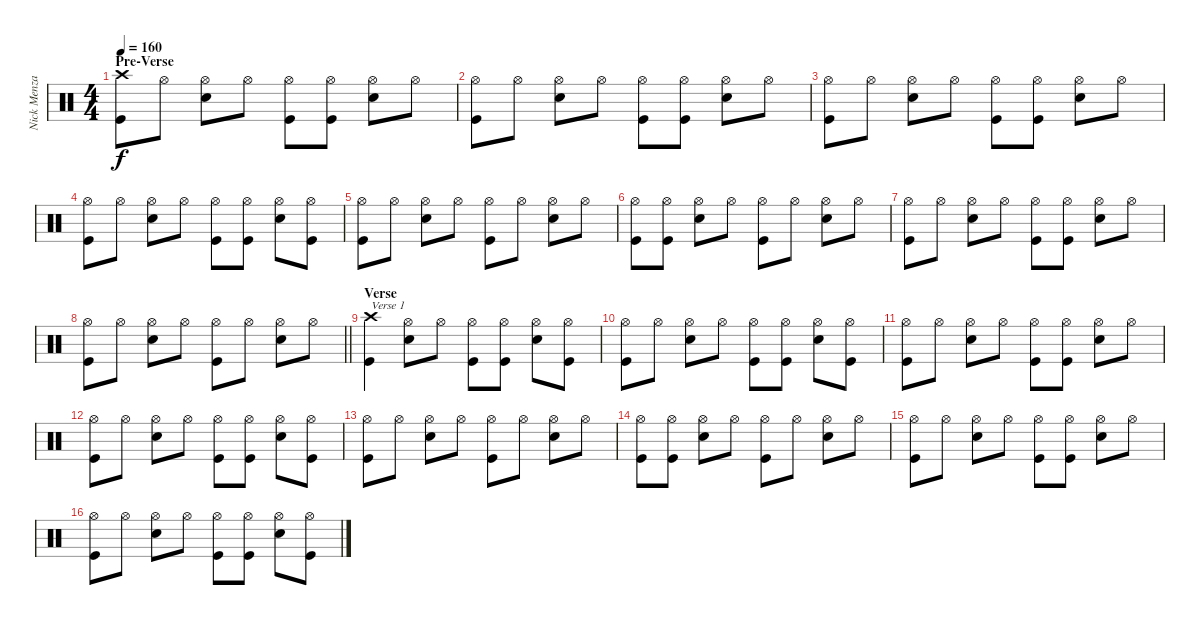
\track ("Nick Menza" "Nick Menza") {instrument percussion}
\staff {score}
\articulation defaults
\ts (4 4)
\section ("" "Pre-Verse")
\tempo 160
\clef neutral
\ks c
("Crash high (hit)" "Kick (hit)").8{dy f} "Hi-Hat (open)".8 ("Hi-Hat (open)" "Snare (hit) 2").8 "Hi-Hat (open)".8 ("Hi-Hat (open)" "Kick (hit)").8 ("Hi-Hat (open)" "Kick (hit)").8 ("Hi-Hat (open)" "Snare (hit) 2").8 "Hi-Hat (open)".8 |
("Hi-Hat (open)" "Kick (hit)").8 "Hi-Hat (open)".8 ("Hi-Hat (open)" "Snare (hit) 2").8 "Hi-Hat (open)".8 ("Hi-Hat (open)" "Kick (hit)").8 ("Hi-Hat (open)" "Kick (hit)").8 ("Hi-Hat (open)" "Snare (hit) 2").8 "Hi-Hat (open)".8 |
("Hi-Hat (open)" "Kick (hit)").8 "Hi-Hat (open)".8 ("Hi-Hat (open)" "Snare (hit) 2").8 "Hi-Hat (open)".8 ("Hi-Hat (open)" "Kick (hit)").8 ("Hi-Hat (open)" "Kick (hit)").8 ("Hi-Hat (open)" "Snare (hit) 2").8 "Hi-Hat (open)".8 |
("Hi-Hat (open)" "Kick (hit)").8 "Hi-Hat (open)".8 ("Hi-Hat (open)" "Snare (hit) 2").8 "Hi-Hat (open)".8 ("Hi-Hat (open)" "Kick (hit)").8 ("Hi-Hat (open)" "Kick (hit)").8 ("Hi-Hat (open)" "Snare (hit) 2").8 ("Hi-Hat (open)" "Kick (hit)").8 |
("Hi-Hat (open)" "Kick (hit)").8 "Hi-Hat (open)".8 ("Hi-Hat (open)" "Snare (hit) 2").8 "Hi-Hat (open)".8 ("Hi-Hat (open)" "Kick (hit)").8 "Hi-Hat (open)".8 ("Hi-Hat (open)" "Snare (hit) 2").8 "Hi-Hat (open)".8 |
("Hi-Hat (open)" "Kick (hit)").8 ("Hi-Hat (open)" "Kick (hit)").8 ("Hi-Hat (open)" "Snare (hit) 2").8 "Hi-Hat (open)".8 ("Hi-Hat (open)" "Kick (hit)").8 "Hi-Hat (open)".8 ("Hi-Hat (open)" "Snare (hit) 2").8 "Hi-Hat (open)".8 |
("Hi-Hat (open)" "Kick (hit)").8 "Hi-Hat (open)".8 ("Hi-Hat (open)" "Snare (hit) 2").8 "Hi-Hat (open)".8 ("Hi-Hat (open)" "Kick (hit)").8 ("Hi-Hat (open)" "Kick (hit)").8 ("Hi-Hat (open)" "Snare (hit) 2").8 "Hi-Hat (open)".8 |
\barLineRight lightlight
("Hi-Hat (open)" "Kick (hit)").8 "Hi-Hat (open)".8 ("Hi-Hat (open)" "Snare (hit) 2").8 "Hi-Hat (open)".8 ("Hi-Hat (open)" "Kick (hit)").8 "Hi-Hat (open)".8 ("Hi-Hat (open)" "Snare (hit) 2").8 "Hi-Hat (open)".8 |
\section ("" "Verse")
("Crash high (hit)" "Kick (hit)").4{txt "Verse 1"} ("Hi-Hat (open)" "Snare (hit) 2").8 "Hi-Hat (open)".8 ("Hi-Hat (open)" "Kick (hit)").8 ("Hi-Hat (open)" "Kick (hit)").8 ("Hi-Hat (open)" "Snare (hit) 2").8 ("Hi-Hat (open)" "Kick (hit)").8 |
("Hi-Hat (open)" "Kick (hit)").8 "Hi-Hat (open)".8 ("Hi-Hat (open)" "Snare (hit) 2").8 "Hi-Hat (open)".8 ("Hi-Hat (open)" "Kick (hit)").8 ("Hi-Hat (open)" "Kick (hit)").8 ("Hi-Hat (open)" "Snare (hit) 2").8 ("Hi-Hat (open)" "Kick (hit)").8 |
("Hi-Hat (open)" "Kick (hit)").8 "Hi-Hat (open)".8 ("Hi-Hat (open)" "Snare (hit) 2").8 "Hi-Hat (open)".8 ("Hi-Hat (open)" "Kick (hit)").8 ("Hi-Hat (open)" "Kick (hit)").8 ("Hi-Hat (open)" "Snare (hit) 2").8 "Hi-Hat (open)".8 |
("Hi-Hat (open)" "Kick (hit)").8 "Hi-Hat (open)".8 ("Hi-Hat (open)" "Snare (hit) 2").8 "Hi-Hat (open)".8 ("Hi-Hat (open)" "Kick (hit)").8 ("Hi-Hat (open)" "Kick (hit)").8 ("Hi-Hat (open)" "Snare (hit) 2").8 ("Hi-Hat (open)" "Kick (hit)").8 |
("Hi-Hat (open)" "Kick (hit)").8 "Hi-Hat (open)".8 ("Hi-Hat (open)" "Snare (hit) 2").8 "Hi-Hat (open)".8 ("Hi-Hat (open)" "Kick (hit)").8 "Hi-Hat (open)".8 ("Hi-Hat (open)" "Snare (hit) 2").8 "Hi-Hat (open)".8 |
("Hi-Hat (open)" "Kick (hit)").8 ("Hi-Hat (open)" "Kick (hit)").8 ("Hi-Hat (open)" "Snare (hit) 2").8 "Hi-Hat (open)".8 ("Hi-Hat (open)" "Kick (hit)").8 "Hi-Hat (open)".8 ("Hi-Hat (open)" "Snare (hit) 2").8 "Hi-Hat (open)".8 |
("Hi-Hat (open)" "Kick (hit)").8 "Hi-Hat (open)".8 ("Hi-Hat (open)" "Snare (hit) 2").8 "Hi-Hat (open)".8 ("Hi-Hat (open)" "Kick (hit)").8 ("Hi-Hat (open)" "Kick (hit)").8 ("Hi-Hat (open)" "Snare (hit) 2").8 "Hi-Hat (open)".8 |
("Hi-Hat (open)" "Kick (hit)").8 "Hi-Hat (open)".8 ("Hi-Hat (open)" "Snare (hit) 2").8 "Hi-Hat (open)".8 ("Hi-Hat (open)" "Kick (hit)").8 ("Hi-Hat (open)" "Kick (hit)").8 ("Hi-Hat (open)" "Snare (hit) 2").8 ("Hi-Hat (open)" "Kick (hit)").8
